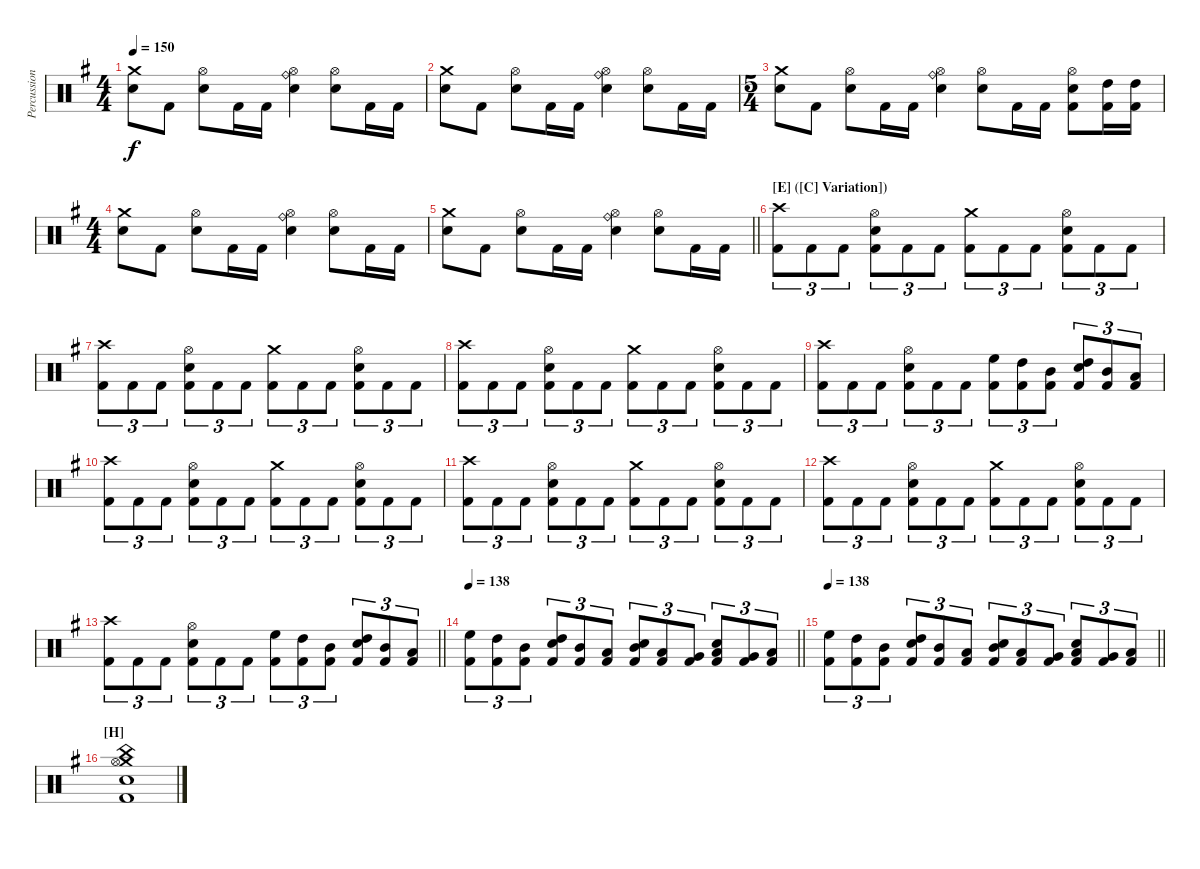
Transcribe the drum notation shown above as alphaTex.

\track ("Percussion" "Percussion") {instrument percussion}
\staff {score}
\articulation defaults
\ts (4 4)
\tempo 150
\clef neutral
\ks eminor
("Crash medium (hit)" "Snare (hit) 2").8{dy f} "Kick (hit) 2".8 ("Hi-Hat (open)" "Snare (hit) 2").8 "Kick (hit) 2".16 "Kick (hit) 2".16 ("Ride (bell)" "Hi-Hat (open)" "Snare (hit) 2").4 ("Hi-Hat (open)" "Snare (hit) 2").8 "Kick (hit) 2".16 "Kick (hit) 2".16 |
("Crash medium (hit)" "Snare (hit) 2").8 "Kick (hit) 2".8 ("Hi-Hat (open)" "Snare (hit) 2").8 "Kick (hit) 2".16 "Kick (hit) 2".16 ("Ride (bell)" "Hi-Hat (open)" "Snare (hit) 2").4 ("Hi-Hat (open)" "Snare (hit) 2").8 "Kick (hit) 2".16 "Kick (hit) 2".16 |
\ts (5 4)
("Crash medium (hit)" "Snare (hit) 2").8 "Kick (hit) 2".8 ("Hi-Hat (open)" "Snare (hit) 2").8 "Kick (hit) 2".16 "Kick (hit) 2".16 ("Ride (bell)" "Hi-Hat (open)" "Snare (hit) 2").4 ("Hi-Hat (open)" "Snare (hit) 2").8 "Kick (hit) 2".16 "Kick (hit) 2".16 ("Hi-Hat (open)" "Snare (hit) 2" "Kick (hit) 2").8 ("High Tom (hit)" "Kick (hit) 2").16 ("High Tom (hit)" "Kick (hit) 2").16 |
\ts (4 4)
("Crash medium (hit)" "Snare (hit) 2").8 "Kick (hit) 2".8 ("Hi-Hat (open)" "Snare (hit) 2").8 "Kick (hit) 2".16 "Kick (hit) 2".16 ("Ride (bell)" "Hi-Hat (open)" "Snare (hit) 2").4 ("Hi-Hat (open)" "Snare (hit) 2").8 "Kick (hit) 2".16 "Kick (hit) 2".16 |
\barLineRight lightlight
("Crash medium (hit)" "Snare (hit) 2").8 "Kick (hit) 2".8 ("Hi-Hat (open)" "Snare (hit) 2").8 "Kick (hit) 2".16 "Kick (hit) 2".16 ("Ride (bell)" "Hi-Hat (open)" "Snare (hit) 2").4 ("Hi-Hat (open)" "Snare (hit) 2").8 "Kick (hit) 2".16 "Kick (hit) 2".16 |
\section ("" "[E] ([C] Variation])")
("Crash high (hit)" "Kick (hit) 2").8{tu (3 2)} "Kick (hit) 2".8{tu (3 2)} "Kick (hit) 2".8{tu (3 2)} ("Hi-Hat (open)" "Snare (hit) 2" "Kick (hit) 2").8{tu (3 2)} "Kick (hit) 2".8{tu (3 2)} "Kick (hit) 2".8{tu (3 2)} ("Crash medium (hit)" "Kick (hit) 2").8{tu (3 2)} "Kick (hit) 2".8{tu (3 2)} "Kick (hit) 2".8{tu (3 2)} ("Hi-Hat (open)" "Snare (hit) 2" "Kick (hit) 2").8{tu (3 2)} "Kick (hit) 2".8{tu (3 2)} "Kick (hit) 2".8{tu (3 2)} |
("Crash high (hit)" "Kick (hit) 2").8{tu (3 2)} "Kick (hit) 2".8{tu (3 2)} "Kick (hit) 2".8{tu (3 2)} ("Hi-Hat (open)" "Snare (hit) 2" "Kick (hit) 2").8{tu (3 2)} "Kick (hit) 2".8{tu (3 2)} "Kick (hit) 2".8{tu (3 2)} ("Crash medium (hit)" "Kick (hit) 2").8{tu (3 2)} "Kick (hit) 2".8{tu (3 2)} "Kick (hit) 2".8{tu (3 2)} ("Hi-Hat (open)" "Snare (hit) 2" "Kick (hit) 2").8{tu (3 2)} "Kick (hit) 2".8{tu (3 2)} "Kick (hit) 2".8{tu (3 2)} |
("Crash high (hit)" "Kick (hit) 2").8{tu (3 2)} "Kick (hit) 2".8{tu (3 2)} "Kick (hit) 2".8{tu (3 2)} ("Hi-Hat (open)" "Snare (hit) 2" "Kick (hit) 2").8{tu (3 2)} "Kick (hit) 2".8{tu (3 2)} "Kick (hit) 2".8{tu (3 2)} ("Crash medium (hit)" "Kick (hit) 2").8{tu (3 2)} "Kick (hit) 2".8{tu (3 2)} "Kick (hit) 2".8{tu (3 2)} ("Hi-Hat (open)" "Snare (hit) 2" "Kick (hit) 2").8{tu (3 2)} "Kick (hit) 2".8{tu (3 2)} "Kick (hit) 2".8{tu (3 2)} |
("Crash high (hit)" "Kick (hit) 2").8{tu (3 2)} "Kick (hit) 2".8{tu (3 2)} "Kick (hit) 2".8{tu (3 2)} ("Hi-Hat (open)" "Snare (hit) 2" "Kick (hit) 2").8{tu (3 2)} "Kick (hit) 2".8{tu (3 2)} "Kick (hit) 2".8{tu (3 2)} ("High Floor Tom (hit)" "Kick (hit) 2").8{tu (3 2)} ("High Tom (hit)" "Kick (hit) 2").8{tu (3 2)} ("Mid Tom (hit)" "Kick (hit) 2").8{tu (3 2)} ("High Tom (hit)" "Snare (hit) 2" "Kick (hit) 2").8{tu (3 2)} ("Mid Tom (hit)" "Kick (hit) 2").8{tu (3 2)} ("Low Tom (hit)" "Kick (hit) 2").8{tu (3 2)} |
("Crash high (hit)" "Kick (hit) 2").8{tu (3 2)} "Kick (hit) 2".8{tu (3 2)} "Kick (hit) 2".8{tu (3 2)} ("Hi-Hat (open)" "Snare (hit) 2" "Kick (hit) 2").8{tu (3 2)} "Kick (hit) 2".8{tu (3 2)} "Kick (hit) 2".8{tu (3 2)} ("Crash medium (hit)" "Kick (hit) 2").8{tu (3 2)} "Kick (hit) 2".8{tu (3 2)} "Kick (hit) 2".8{tu (3 2)} ("Hi-Hat (open)" "Snare (hit) 2" "Kick (hit) 2").8{tu (3 2)} "Kick (hit) 2".8{tu (3 2)} "Kick (hit) 2".8{tu (3 2)} |
("Crash high (hit)" "Kick (hit) 2").8{tu (3 2)} "Kick (hit) 2".8{tu (3 2)} "Kick (hit) 2".8{tu (3 2)} ("Hi-Hat (open)" "Snare (hit) 2" "Kick (hit) 2").8{tu (3 2)} "Kick (hit) 2".8{tu (3 2)} "Kick (hit) 2".8{tu (3 2)} ("Crash medium (hit)" "Kick (hit) 2").8{tu (3 2)} "Kick (hit) 2".8{tu (3 2)} "Kick (hit) 2".8{tu (3 2)} ("Hi-Hat (open)" "Snare (hit) 2" "Kick (hit) 2").8{tu (3 2)} "Kick (hit) 2".8{tu (3 2)} "Kick (hit) 2".8{tu (3 2)} |
("Crash high (hit)" "Kick (hit) 2").8{tu (3 2)} "Kick (hit) 2".8{tu (3 2)} "Kick (hit) 2".8{tu (3 2)} ("Hi-Hat (open)" "Snare (hit) 2" "Kick (hit) 2").8{tu (3 2)} "Kick (hit) 2".8{tu (3 2)} "Kick (hit) 2".8{tu (3 2)} ("Crash medium (hit)" "Kick (hit) 2").8{tu (3 2)} "Kick (hit) 2".8{tu (3 2)} "Kick (hit) 2".8{tu (3 2)} ("Hi-Hat (open)" "Snare (hit) 2" "Kick (hit) 2").8{tu (3 2)} "Kick (hit) 2".8{tu (3 2)} "Kick (hit) 2".8{tu (3 2)} |
\barLineRight lightlight
("Crash high (hit)" "Kick (hit) 2").8{tu (3 2)} "Kick (hit) 2".8{tu (3 2)} "Kick (hit) 2".8{tu (3 2)} ("Hi-Hat (open)" "Snare (hit) 2" "Kick (hit) 2").8{tu (3 2)} "Kick (hit) 2".8{tu (3 2)} "Kick (hit) 2".8{tu (3 2)} ("High Floor Tom (hit)" "Kick (hit) 2").8{tu (3 2)} ("High Tom (hit)" "Kick (hit) 2").8{tu (3 2)} ("Mid Tom (hit)" "Kick (hit) 2").8{tu (3 2)} ("High Tom (hit)" "Snare (hit) 2" "Kick (hit) 2").8{tu (3 2)} ("Mid Tom (hit)" "Kick (hit) 2").8{tu (3 2)} ("Low Tom (hit)" "Kick (hit) 2").8{tu (3 2)} |
\tempo 138
\barLineRight lightlight
("High Floor Tom (hit)" "Kick (hit) 2").8{tu (3 2)} ("High Tom (hit)" "Kick (hit) 2").8{tu (3 2)} ("Mid Tom (hit)" "Kick (hit) 2").8{tu (3 2)} ("High Tom (hit)" "Snare (hit) 2" "Kick (hit) 2").8{tu (3 2)} ("Mid Tom (hit)" "Kick (hit) 2").8{tu (3 2)} ("Low Tom (hit)" "Kick (hit) 2").8{tu (3 2)} ("Mid Tom (hit)" "Snare (hit) 2" "Kick (hit) 2").8{tu (3 2)} ("Low Tom (hit)" "Kick (hit) 2").8{tu (3 2)} ("Very Low Tom (hit)" "Kick (hit) 2").8{tu (3 2)} ("Low Tom (hit)" "Snare (hit) 2" "Kick (hit) 2").8{tu (3 2)} ("Very Low Tom (hit)" "Kick (hit) 2").8{tu (3 2)} ("Low Floor Tom (hit)" "Kick (hit) 2").8{tu (3 2)} |
\tempo 138
\barLineRight lightlight
("High Floor Tom (hit)" "Kick (hit) 2").8{tu (3 2)} ("High Tom (hit)" "Kick (hit) 2").8{tu (3 2)} ("Mid Tom (hit)" "Kick (hit) 2").8{tu (3 2)} ("High Tom (hit)" "Snare (hit) 2" "Kick (hit) 2").8{tu (3 2)} ("Mid Tom (hit)" "Kick (hit) 2").8{tu (3 2)} ("Low Tom (hit)" "Kick (hit) 2").8{tu (3 2)} ("Mid Tom (hit)" "Snare (hit) 2" "Kick (hit) 2").8{tu (3 2)} ("Low Tom (hit)" "Kick (hit) 2").8{tu (3 2)} ("Very Low Tom (hit)" "Kick (hit) 2").8{tu (3 2)} ("Low Tom (hit)" "Snare (hit) 2" "Kick (hit) 2").8{tu (3 2)} ("Very Low Tom (hit)" "Kick (hit) 2").8{tu (3 2)} ("Low Floor Tom (hit)" "Kick (hit) 2").8{tu (3 2)} |
\section ("" "[H]")
("Crash medium (hit)" "China (hit)" "Hi-Hat (open)" "Snare (hit) 2" "Kick (hit) 2").1
